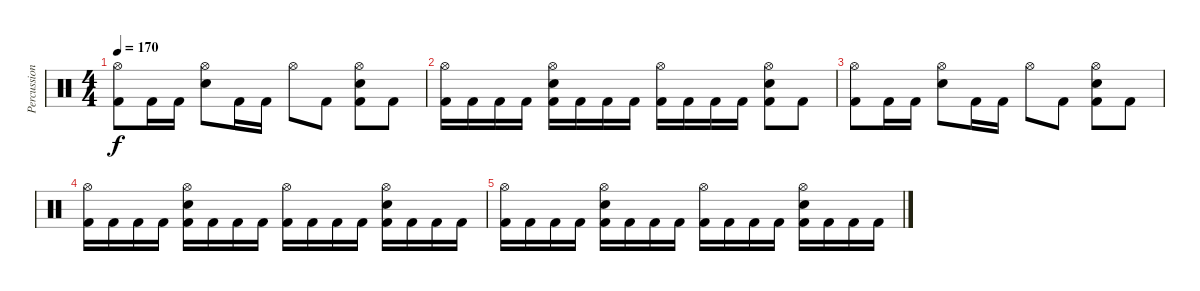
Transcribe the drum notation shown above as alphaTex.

\track ("Percussion" "Percussion") {instrument percussion}
\staff {score}
\articulation defaults
\ts (4 4)
\tempo 170
\clef neutral
\ks c
("Hi-Hat (open)" "Kick (hit) 2").8{dy f} "Kick (hit) 2".16 "Kick (hit) 2".16 ("Hi-Hat (open)" "Snare (hit) 2").8 "Kick (hit) 2".16 "Kick (hit) 2".16 "Hi-Hat (open)".8 "Kick (hit) 2".8 ("Hi-Hat (open)" "Snare (hit) 2" "Kick (hit) 2").8 "Kick (hit) 2".8 |
("Hi-Hat (open)" "Kick (hit) 2").16 "Kick (hit) 2".16 "Kick (hit) 2".16 "Kick (hit) 2".16 ("Hi-Hat (open)" "Snare (hit) 2" "Kick (hit) 2").16 "Kick (hit) 2".16 "Kick (hit) 2".16 "Kick (hit) 2".16 ("Hi-Hat (open)" "Kick (hit) 2").16 "Kick (hit) 2".16 "Kick (hit) 2".16 "Kick (hit) 2".16 ("Hi-Hat (open)" "Snare (hit) 2" "Kick (hit) 2").8 "Kick (hit) 2".8 |
("Hi-Hat (open)" "Kick (hit) 2").8 "Kick (hit) 2".16 "Kick (hit) 2".16 ("Hi-Hat (open)" "Snare (hit) 2").8 "Kick (hit) 2".16 "Kick (hit) 2".16 "Hi-Hat (open)".8 "Kick (hit) 2".8 ("Hi-Hat (open)" "Snare (hit) 2" "Kick (hit) 2").8 "Kick (hit) 2".8 |
("Hi-Hat (open)" "Kick (hit) 2").16 "Kick (hit) 2".16 "Kick (hit) 2".16 "Kick (hit) 2".16 ("Hi-Hat (open)" "Snare (hit) 2" "Kick (hit) 2").16 "Kick (hit) 2".16 "Kick (hit) 2".16 "Kick (hit) 2".16 ("Hi-Hat (open)" "Kick (hit) 2").16 "Kick (hit) 2".16 "Kick (hit) 2".16 "Kick (hit) 2".16 ("Hi-Hat (open)" "Snare (hit) 2" "Kick (hit) 2").16 "Kick (hit) 2".16 "Kick (hit) 2".16 "Kick (hit) 2".16 |
("Hi-Hat (open)" "Kick (hit) 2").16 "Kick (hit) 2".16 "Kick (hit) 2".16 "Kick (hit) 2".16 ("Hi-Hat (open)" "Snare (hit) 2" "Kick (hit) 2").16 "Kick (hit) 2".16 "Kick (hit) 2".16 "Kick (hit) 2".16 ("Hi-Hat (open)" "Kick (hit) 2").16 "Kick (hit) 2".16 "Kick (hit) 2".16 "Kick (hit) 2".16 ("Hi-Hat (open)" "Snare (hit) 2" "Kick (hit) 2").16 "Kick (hit) 2".16 "Kick (hit) 2".16 "Kick (hit) 2".16
